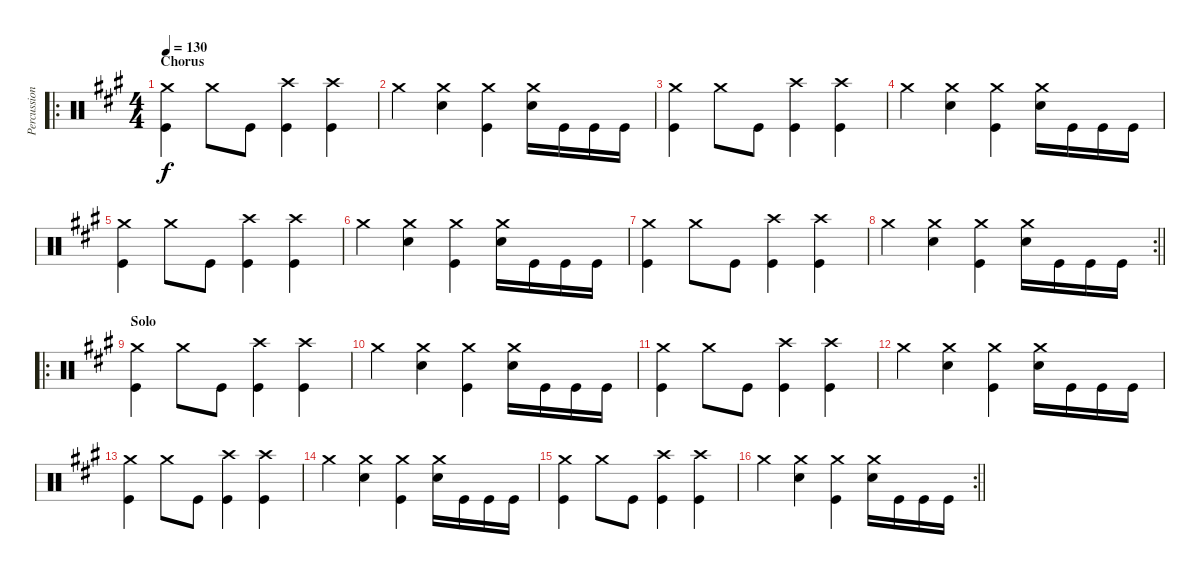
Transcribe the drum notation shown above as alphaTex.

\track ("Percussion" "Percussion") {instrument percussion}
\staff {score}
\articulation defaults
\ro
\ts (4 4)
\section ("" "Chorus")
\tempo 130
\clef neutral
\ks a
("Crash medium (hit)" "Kick (hit)").4{dy f} "Crash medium (hit)".8 "Kick (hit)".8 ("Crash high (hit)" "Kick (hit)").4 ("Crash high (hit)" "Kick (hit)").4 |
"Crash medium (hit)".4 ("Crash medium (hit)" "Snare (hit) 2").4 ("Crash medium (hit)" "Kick (hit)").4 ("Crash medium (hit)" "Snare (hit) 2").16 "Kick (hit)".16 "Kick (hit)".16 "Kick (hit)".16 |
("Crash medium (hit)" "Kick (hit)").4 "Crash medium (hit)".8 "Kick (hit)".8 ("Crash high (hit)" "Kick (hit)").4 ("Crash high (hit)" "Kick (hit)").4 |
"Crash medium (hit)".4 ("Crash medium (hit)" "Snare (hit) 2").4 ("Crash medium (hit)" "Kick (hit)").4 ("Crash medium (hit)" "Snare (hit) 2").16 "Kick (hit)".16 "Kick (hit)".16 "Kick (hit)".16 |
("Crash medium (hit)" "Kick (hit)").4 "Crash medium (hit)".8 "Kick (hit)".8 ("Crash high (hit)" "Kick (hit)").4 ("Crash high (hit)" "Kick (hit)").4 |
"Crash medium (hit)".4 ("Crash medium (hit)" "Snare (hit) 2").4 ("Crash medium (hit)" "Kick (hit)").4 ("Crash medium (hit)" "Snare (hit) 2").16 "Kick (hit)".16 "Kick (hit)".16 "Kick (hit)".16 |
("Crash medium (hit)" "Kick (hit)").4 "Crash medium (hit)".8 "Kick (hit)".8 ("Crash high (hit)" "Kick (hit)").4 ("Crash high (hit)" "Kick (hit)").4 |
\rc 2
\barLineRight lightlight "Crash medium (hit)".4
("Crash medium (hit)" "Snare (hit) 2").4 ("Crash medium (hit)" "Kick (hit)").4 ("Crash medium (hit)" "Snare (hit) 2").16 "Kick (hit)".16 "Kick (hit)".16 "Kick (hit)".16 |
\ro
\section ("" "Solo")
("Crash medium (hit)" "Kick (hit)").4 "Crash medium (hit)".8 "Kick (hit)".8 ("Crash high (hit)" "Kick (hit)").4 ("Crash high (hit)" "Kick (hit)").4 |
"Crash medium (hit)".4 ("Crash medium (hit)" "Snare (hit) 2").4 ("Crash medium (hit)" "Kick (hit)").4 ("Crash medium (hit)" "Snare (hit) 2").16 "Kick (hit)".16 "Kick (hit)".16 "Kick (hit)".16 |
("Crash medium (hit)" "Kick (hit)").4 "Crash medium (hit)".8 "Kick (hit)".8 ("Crash high (hit)" "Kick (hit)").4 ("Crash high (hit)" "Kick (hit)").4 |
"Crash medium (hit)".4 ("Crash medium (hit)" "Snare (hit) 2").4 ("Crash medium (hit)" "Kick (hit)").4 ("Crash medium (hit)" "Snare (hit) 2").16 "Kick (hit)".16 "Kick (hit)".16 "Kick (hit)".16 |
("Crash medium (hit)" "Kick (hit)").4 "Crash medium (hit)".8 "Kick (hit)".8 ("Crash high (hit)" "Kick (hit)").4 ("Crash high (hit)" "Kick (hit)").4 |
"Crash medium (hit)".4 ("Crash medium (hit)" "Snare (hit) 2").4 ("Crash medium (hit)" "Kick (hit)").4 ("Crash medium (hit)" "Snare (hit) 2").16 "Kick (hit)".16 "Kick (hit)".16 "Kick (hit)".16 |
("Crash medium (hit)" "Kick (hit)").4 "Crash medium (hit)".8 "Kick (hit)".8 ("Crash high (hit)" "Kick (hit)").4 ("Crash high (hit)" "Kick (hit)").4 |
\rc 2
\barLineRight lightlight "Crash medium (hit)".4
("Crash medium (hit)" "Snare (hit) 2").4 ("Crash medium (hit)" "Kick (hit)").4 ("Crash medium (hit)" "Snare (hit) 2").16 "Kick (hit)".16 "Kick (hit)".16 "Kick (hit)".16
